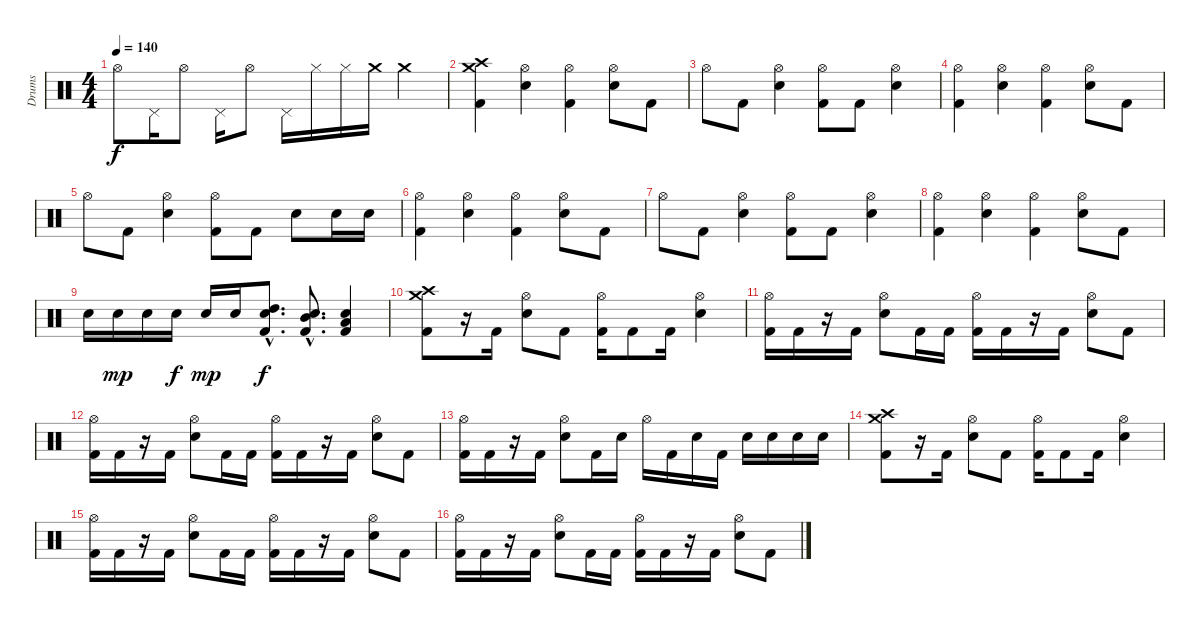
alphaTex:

\track ("Drums" "Drums") {instrument percussion}
\staff {score}
\articulation defaults
\ts (4 4)
\tempo 140
\clef neutral
\ks c "Hi-Hat (open)".8{dy f} "Pedal Hi-Hat (hit)".16 "Hi-Hat (open)".8 "Pedal Hi-Hat (hit)".16 "Hi-Hat (open)".8 "Pedal Hi-Hat (hit)".16 "Hi-Hat (closed)".16 "Hi-Hat (closed)".16 "Crash medium (hit)".16 "Crash medium (hit)".4
|
("Crash medium (hit)" "Crash high (hit)" "Kick (hit) 2").4 ("Hi-Hat (open)" "Snare (hit) 2").4 ("Hi-Hat (open)" "Kick (hit) 2").4 ("Hi-Hat (open)" "Snare (hit) 2").8 "Kick (hit) 2".8 |
"Hi-Hat (open)".8 "Kick (hit) 2".8 ("Hi-Hat (open)" "Snare (hit) 2").4 ("Hi-Hat (open)" "Kick (hit) 2").8 "Kick (hit) 2".8 ("Hi-Hat (open)" "Snare (hit) 2").4 |
("Hi-Hat (open)" "Kick (hit) 2").4 ("Hi-Hat (open)" "Snare (hit) 2").4 ("Hi-Hat (open)" "Kick (hit) 2").4 ("Hi-Hat (open)" "Snare (hit) 2").8 "Kick (hit) 2".8 |
"Hi-Hat (open)".8 "Kick (hit) 2".8 ("Hi-Hat (open)" "Snare (hit) 2").4 ("Hi-Hat (open)" "Kick (hit) 2").8 "Kick (hit) 2".8 "Snare (hit) 2".8 "Snare (hit) 2".16 "Snare (hit) 2".16 |
("Hi-Hat (open)" "Kick (hit) 2").4 ("Hi-Hat (open)" "Snare (hit) 2").4 ("Hi-Hat (open)" "Kick (hit) 2").4 ("Hi-Hat (open)" "Snare (hit) 2").8 "Kick (hit) 2".8 |
"Hi-Hat (open)".8 "Kick (hit) 2".8 ("Hi-Hat (open)" "Snare (hit) 2").4 ("Hi-Hat (open)" "Kick (hit) 2").8 "Kick (hit) 2".8 ("Hi-Hat (open)" "Snare (hit) 2").4 |
("Hi-Hat (open)" "Kick (hit) 2").4 ("Hi-Hat (open)" "Snare (hit) 2").4 ("Hi-Hat (open)" "Kick (hit) 2").4 ("Hi-Hat (open)" "Snare (hit) 2").8 "Kick (hit) 2".8 |
"Snare (hit) 2".16 "Snare (hit) 2".16{dy mp} "Snare (hit) 2".16 "Snare (hit) 2".16{dy f} "Snare (hit) 2".16{dy mp} "Snare (hit) 2".16 ("High Tom (hit)"{hac} "Snare (hit) 2"{hac} "Kick (hit) 2"{hac}).8{d dy f} ("Mid Tom (hit)"{hac} "Snare (hit) 2"{hac} "Kick (hit) 2"{hac}).8{d} ("Low Tom (hit)" "Snare (hit) 2" "Kick (hit) 2").4 |
("Crash medium (hit)" "Crash high (hit)" "Kick (hit) 2").8 r.16 "Kick (hit) 2".16 ("Hi-Hat (open)" "Snare (hit) 2").8 "Kick (hit) 2".8 ("Hi-Hat (open)" "Kick (hit) 2").16 "Kick (hit) 2".8 "Kick (hit) 2".16 ("Hi-Hat (open)" "Snare (hit) 2").4 |
("Hi-Hat (open)" "Kick (hit) 2").16 "Kick (hit) 2".16 r.16 "Kick (hit) 2".16 ("Hi-Hat (open)" "Snare (hit) 2").8 "Kick (hit) 2".16 "Kick (hit) 2".16 ("Hi-Hat (open)" "Kick (hit) 2").16 "Kick (hit) 2".16 r.16 "Kick (hit) 2".16 ("Hi-Hat (open)" "Snare (hit) 2").8 "Kick (hit) 2".8 |
("Hi-Hat (open)" "Kick (hit) 2").16 "Kick (hit) 2".16 r.16 "Kick (hit) 2".16 ("Hi-Hat (open)" "Snare (hit) 2").8 "Kick (hit) 2".16 "Kick (hit) 2".16 ("Hi-Hat (open)" "Kick (hit) 2").16 "Kick (hit) 2".16 r.16 "Kick (hit) 2".16 ("Hi-Hat (open)" "Snare (hit) 2").8 "Kick (hit) 2".8 |
("Hi-Hat (open)" "Kick (hit) 2").16 "Kick (hit) 2".16 r.16 "Kick (hit) 2".16 ("Hi-Hat (open)" "Snare (hit) 2").8 "Kick (hit) 2".16 "Snare (hit) 2".16 "Hi-Hat (open)".16 "Kick (hit) 2".16 "Snare (hit) 2".16 "Kick (hit) 2".16 "Snare (hit) 2".16 "Snare (hit) 2".16 "Snare (hit) 2".16 "Snare (hit) 2".16 |
("Crash medium (hit)" "Crash high (hit)" "Kick (hit) 2").8 r.16 "Kick (hit) 2".16 ("Hi-Hat (open)" "Snare (hit) 2").8 "Kick (hit) 2".8 ("Hi-Hat (open)" "Kick (hit) 2").16 "Kick (hit) 2".8 "Kick (hit) 2".16 ("Hi-Hat (open)" "Snare (hit) 2").4 |
("Hi-Hat (open)" "Kick (hit) 2").16 "Kick (hit) 2".16 r.16 "Kick (hit) 2".16 ("Hi-Hat (open)" "Snare (hit) 2").8 "Kick (hit) 2".16 "Kick (hit) 2".16 ("Hi-Hat (open)" "Kick (hit) 2").16 "Kick (hit) 2".16 r.16 "Kick (hit) 2".16 ("Hi-Hat (open)" "Snare (hit) 2").8 "Kick (hit) 2".8 |
("Hi-Hat (open)" "Kick (hit) 2").16 "Kick (hit) 2".16 r.16 "Kick (hit) 2".16 ("Hi-Hat (open)" "Snare (hit) 2").8 "Kick (hit) 2".16 "Kick (hit) 2".16 ("Hi-Hat (open)" "Kick (hit) 2").16 "Kick (hit) 2".16 r.16 "Kick (hit) 2".16 ("Hi-Hat (open)" "Snare (hit) 2").8 "Kick (hit) 2".8
